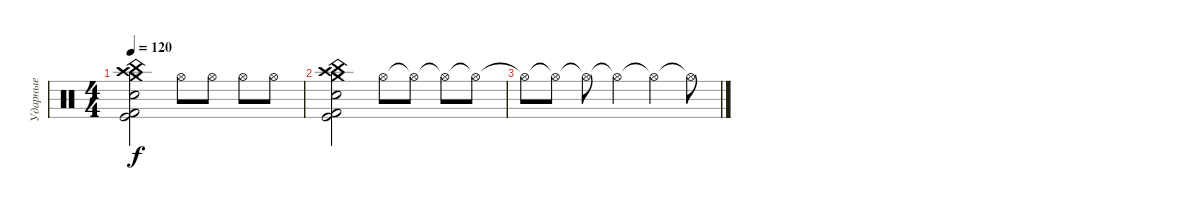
\track ("Ударные" "Ударные") {instrument percussion}
\staff {score}
\articulation defaults
\ts (4 4)
\tempo 120
\clef neutral
\ks c
("China (hit)" "Crash medium (hit)" "Crash high (hit)" "Snare (hit) 2" "Kick (hit)" "Kick (hit) 2").2{dy f} "Hi-Hat (open)".8 "Hi-Hat (open)".8 "Hi-Hat (open)".8 "Hi-Hat (open)".8 |
("China (hit)" "Crash medium (hit)" "Crash high (hit)" "Snare (hit) 2" "Kick (hit)" "Kick (hit) 2").2 "Hi-Hat (open)".8 "Hi-Hat (open)"{t}.8 "Hi-Hat (open)"{t}.8 "Hi-Hat (open)"{t}.8 |
"Hi-Hat (open)"{t}.8 "Hi-Hat (open)"{t}.8 "Hi-Hat (open)"{t}.8 "Hi-Hat (open)"{t}.4 "Hi-Hat (open)"{t}.4 "Hi-Hat (open)"{t}.8
